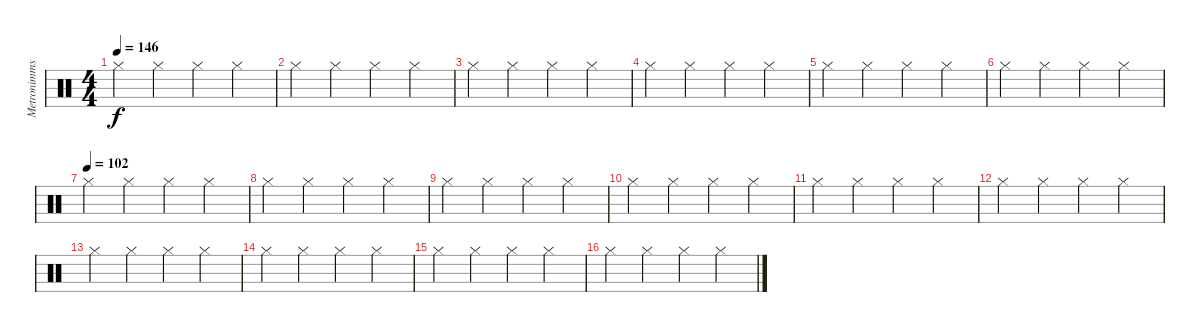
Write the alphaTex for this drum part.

\track ("Metronimms" "Metronimms") {instrument percussion}
\staff {score}
\articulation defaults
\ts (4 4)
\tempo 146
\clef neutral
\ks c "Hi-Hat (closed)".4{dy f} "Hi-Hat (closed)".4 "Hi-Hat (closed)".4 "Hi-Hat (closed)".4
|
"Hi-Hat (closed)".4 "Hi-Hat (closed)".4 "Hi-Hat (closed)".4 "Hi-Hat (closed)".4 |
"Hi-Hat (closed)".4 "Hi-Hat (closed)".4 "Hi-Hat (closed)".4 "Hi-Hat (closed)".4 |
"Hi-Hat (closed)".4 "Hi-Hat (closed)".4 "Hi-Hat (closed)".4 "Hi-Hat (closed)".4 |
"Hi-Hat (closed)".4 "Hi-Hat (closed)".4 "Hi-Hat (closed)".4 "Hi-Hat (closed)".4 |
"Hi-Hat (closed)".4 "Hi-Hat (closed)".4 "Hi-Hat (closed)".4 "Hi-Hat (closed)".4 |
\tempo (102)
"Hi-Hat (closed)".4 "Hi-Hat (closed)".4 "Hi-Hat (closed)".4 "Hi-Hat (closed)".4 |
"Hi-Hat (closed)".4 "Hi-Hat (closed)".4 "Hi-Hat (closed)".4 "Hi-Hat (closed)".4 |
"Hi-Hat (closed)".4 "Hi-Hat (closed)".4 "Hi-Hat (closed)".4 "Hi-Hat (closed)".4 |
"Hi-Hat (closed)".4 "Hi-Hat (closed)".4 "Hi-Hat (closed)".4 "Hi-Hat (closed)".4 |
"Hi-Hat (closed)".4 "Hi-Hat (closed)".4 "Hi-Hat (closed)".4 "Hi-Hat (closed)".4 |
"Hi-Hat (closed)".4 "Hi-Hat (closed)".4 "Hi-Hat (closed)".4 "Hi-Hat (closed)".4 |
"Hi-Hat (closed)".4 "Hi-Hat (closed)".4 "Hi-Hat (closed)".4 "Hi-Hat (closed)".4 |
"Hi-Hat (closed)".4 "Hi-Hat (closed)".4 "Hi-Hat (closed)".4 "Hi-Hat (closed)".4 |
"Hi-Hat (closed)".4 "Hi-Hat (closed)".4 "Hi-Hat (closed)".4 "Hi-Hat (closed)".4 |
"Hi-Hat (closed)".4 "Hi-Hat (closed)".4 "Hi-Hat (closed)".4 "Hi-Hat (closed)".4
